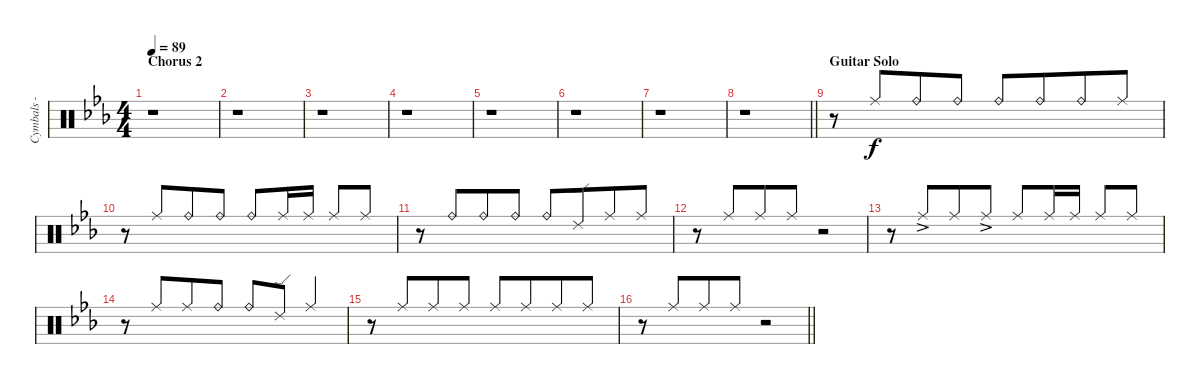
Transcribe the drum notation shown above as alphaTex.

\track ("Cymbals - ride" "Cymbals - ") {instrument percussion}
\staff {score}
\articulation defaults
\ts (4 4)
\section ("" "Chorus 2")
\tempo 89
\clef neutral
\ks eb
r.1{dy f} |
r.1 |
r.1 |
r.1 |
r.1 |
r.1 |
r.1 |
\barLineRight lightlight
r.1 |
\section ("" "Guitar Solo")
r.8 "Ride (middle)".8{beam Up beam merge} "Ride (bell)".8{beam Up} "Ride (bell)".8{beam Up} "Ride (bell)".8{beam Up} "Ride (bell)".8{beam Up beam merge} "Ride (bell)".8{beam Up} "Ride (middle)".8{beam Up} |
r.8 "Ride (middle)".8{beam Up beam merge} "Ride (bell)".8{beam Up} "Ride (bell)".8{beam Up} "Ride (bell)".8{beam Up} "Ride (middle)".16{beam Up} "Ride (middle)".16{beam Up} "Ride (middle)".8{beam Up} "Ride (middle)".8{beam Up} |
r.8 "Ride (bell)".8{beam Up beam merge} "Ride (bell)".8{beam Up} "Ride (bell)".8{beam Up} "Ride (bell)".8{beam Up} "Ride (edge) 2".8{beam Up beam merge} "Ride (middle)".8{beam Up} "Ride (middle)".8{beam Up} |
r.8 "Ride (middle)".8{beam Up beam merge} "Ride (middle)".8{beam Up} "Ride (middle)".8{beam Up} r.2 |
r.8 "Ride (middle)"{ac}.8{beam Up beam merge} "Ride (middle)".8{beam Up} "Ride (middle)"{ac}.8{beam Up} "Ride (middle)".8{beam Up} "Ride (middle)".16{beam Up} "Ride (middle)".16{beam Up} "Ride (middle)".8{beam Up} "Ride (middle)".8{beam Up} |
r.8 "Ride (middle)".8{beam Up beam merge} "Ride (middle)".8{beam Up} "Ride (bell)".8{beam Up} "Ride (bell)".8{beam Up} "Ride (edge) 2".8{beam Up} "Ride (middle)".4{beam Up} |
r.8 "Ride (middle)".8{beam Up beam merge} "Ride (middle)".8{beam Up} "Ride (middle)".8{beam Up} "Ride (middle)".8{beam Up} "Ride (middle)".8{beam Up beam merge} "Ride (middle)".8{beam Up} "Ride (middle)".8{beam Up} |
\barLineRight lightlight
r.8 "Ride (middle)".8{beam Up beam merge} "Ride (middle)".8{beam Up} "Ride (middle)".8{beam Up} r.2
